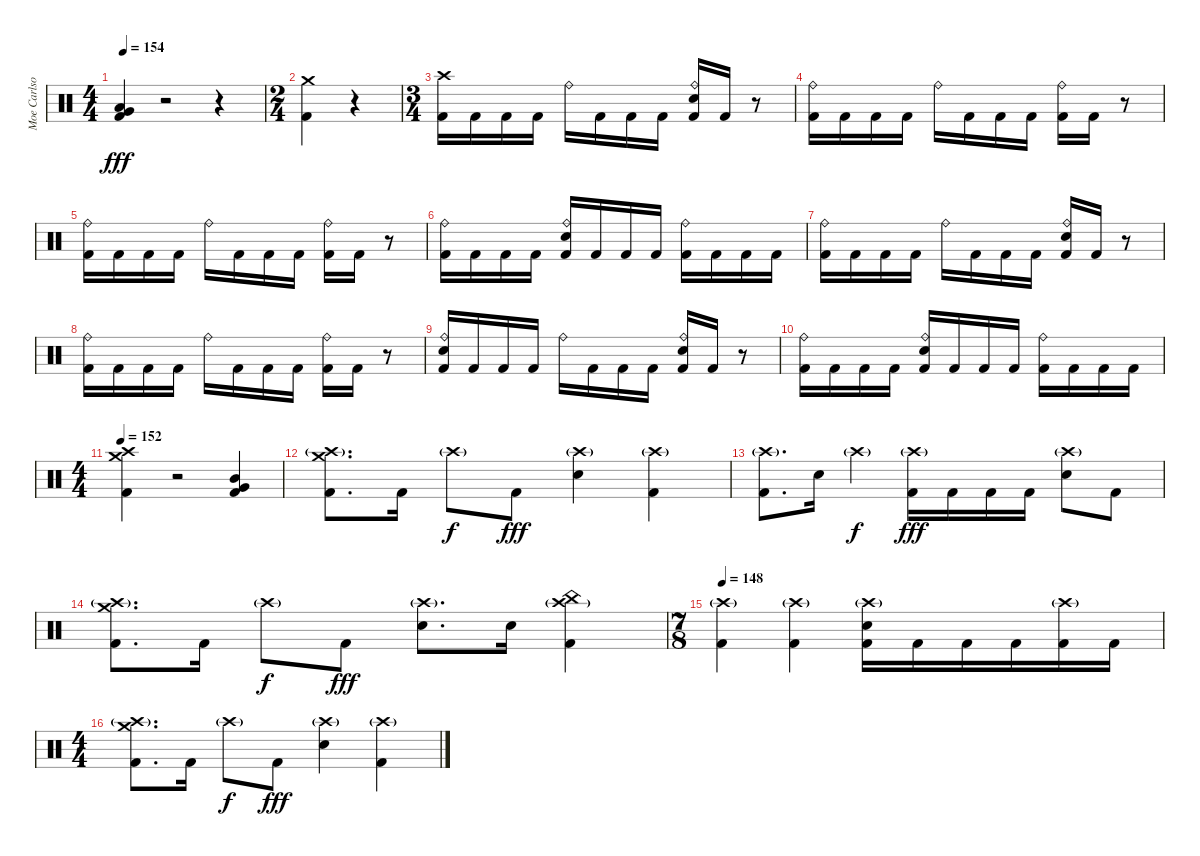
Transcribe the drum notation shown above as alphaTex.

\track ("Moe Carlson" "Moe Carlso") {instrument percussion}
\staff {score}
\articulation defaults
\ts (4 4)
\tempo 154
\clef neutral
\ks c
("Very Low Tom (hit)" "Low Floor Tom (hit)" "Kick (hit) 2").4{dy fff} r.2 r.4 |
\ts (2 4)
("Crash medium (hit)" "Kick (hit) 2").4 r.4 |
\ts (3 4)
("Crash high (hit)" "Kick (hit) 2").16 "Kick (hit) 2".16 "Kick (hit) 2".16 "Kick (hit) 2".16 "Ride (bell)".16 "Kick (hit) 2".16 "Kick (hit) 2".16 "Kick (hit) 2".16 ("Ride (bell)" "Electric Snare (hit)" "Kick (hit) 2").16 "Kick (hit) 2".16 r.8 |
("Ride (bell)" "Kick (hit) 2").16 "Kick (hit) 2".16 "Kick (hit) 2".16 "Kick (hit) 2".16 "Ride (bell)".16 "Kick (hit) 2".16 "Kick (hit) 2".16 "Kick (hit) 2".16 ("Ride (bell)" "Kick (hit) 2").16 "Kick (hit) 2".16 r.8 |
("Ride (bell)" "Kick (hit) 2").16 "Kick (hit) 2".16 "Kick (hit) 2".16 "Kick (hit) 2".16 "Ride (bell)".16 "Kick (hit) 2".16 "Kick (hit) 2".16 "Kick (hit) 2".16 ("Ride (bell)" "Kick (hit) 2").16 "Kick (hit) 2".16 r.8 |
("Ride (bell)" "Kick (hit) 2").16 "Kick (hit) 2".16 "Kick (hit) 2".16 "Kick (hit) 2".16 ("Ride (bell)" "Electric Snare (hit)" "Kick (hit) 2").16 "Kick (hit) 2".16 "Kick (hit) 2".16 "Kick (hit) 2".16 ("Ride (bell)" "Kick (hit) 2").16 "Kick (hit) 2".16 "Kick (hit) 2".16 "Kick (hit) 2".16 |
("Ride (bell)" "Kick (hit) 2").16 "Kick (hit) 2".16 "Kick (hit) 2".16 "Kick (hit) 2".16 "Ride (bell)".16 "Kick (hit) 2".16 "Kick (hit) 2".16 "Kick (hit) 2".16 ("Ride (bell)" "Electric Snare (hit)" "Kick (hit) 2").16 "Kick (hit) 2".16 r.8 |
("Ride (bell)" "Kick (hit) 2").16 "Kick (hit) 2".16 "Kick (hit) 2".16 "Kick (hit) 2".16 "Ride (bell)".16 "Kick (hit) 2".16 "Kick (hit) 2".16 "Kick (hit) 2".16 ("Ride (bell)" "Kick (hit) 2").16 "Kick (hit) 2".16 r.8 |
("Ride (bell)" "Electric Snare (hit)" "Kick (hit) 2").16 "Kick (hit) 2".16 "Kick (hit) 2".16 "Kick (hit) 2".16 "Ride (bell)".16 "Kick (hit) 2".16 "Kick (hit) 2".16 "Kick (hit) 2".16 ("Ride (bell)" "Electric Snare (hit)" "Kick (hit) 2").16 "Kick (hit) 2".16 r.8 |
("Ride (bell)" "Kick (hit) 2").16 "Kick (hit) 2".16 "Kick (hit) 2".16 "Kick (hit) 2".16 ("Ride (bell)" "Electric Snare (hit)" "Kick (hit) 2").16 "Kick (hit) 2".16 "Kick (hit) 2".16 "Kick (hit) 2".16 ("Ride (bell)" "Kick (hit) 2").16 "Kick (hit) 2".16 "Kick (hit) 2".16 "Kick (hit) 2".16 |
\ts (4 4)
\tempo 152
("Crash high (hit)" "Crash medium (hit)" "Kick (hit) 2").4 r.2 ("Mid Tom (hit)" "Very Low Tom (hit)" "Kick (hit) 2").4 |
("Crash high (hit)"{g} "Crash medium (hit)" "Kick (hit) 2").8{d} "Kick (hit) 2".16 "Crash high (hit)"{g}.8{dy f} "Kick (hit) 2".8{dy fff} ("Crash high (hit)"{g} "Electric Snare (hit)").4 ("Crash high (hit)"{g} "Kick (hit) 2").4 |
("Crash high (hit)"{g} "Kick (hit) 2").8{d} "Electric Snare (hit)".16 "Crash high (hit)"{g}.4{dy f} ("Crash high (hit)"{g} "Kick (hit) 2").16{dy fff} "Kick (hit) 2".16 "Kick (hit) 2".16 "Kick (hit) 2".16 ("Crash high (hit)"{g} "Electric Snare (hit)").8 "Kick (hit) 2".8 |
("Crash high (hit)"{g} "Crash medium (hit)" "Kick (hit) 2").8{d} "Kick (hit) 2".16 "Crash high (hit)"{g}.8{dy f} "Kick (hit) 2".8{dy fff} ("Crash high (hit)"{g} "Electric Snare (hit)").8{d} "Electric Snare (hit)".16 ("Crash high (hit)"{g} "China (hit)" "Kick (hit) 2").4 |
\ts (7 8)
\tempo 148
("Crash high (hit)"{g} "Kick (hit) 2").4 ("Crash high (hit)"{g} "Kick (hit) 2").4 ("Crash high (hit)"{g} "Electric Snare (hit)" "Kick (hit) 2").16 "Kick (hit) 2".16 "Kick (hit) 2".16 "Kick (hit) 2".16 ("Crash high (hit)"{g} "Kick (hit) 2").16 "Kick (hit) 2".16 |
\ts (4 4)
("Crash high (hit)"{g} "Crash medium (hit)" "Kick (hit) 2").8{d} "Kick (hit) 2".16 "Crash high (hit)"{g}.8{dy f} "Kick (hit) 2".8{dy fff} ("Crash high (hit)"{g} "Electric Snare (hit)").4 ("Crash high (hit)"{g} "Kick (hit) 2").4
